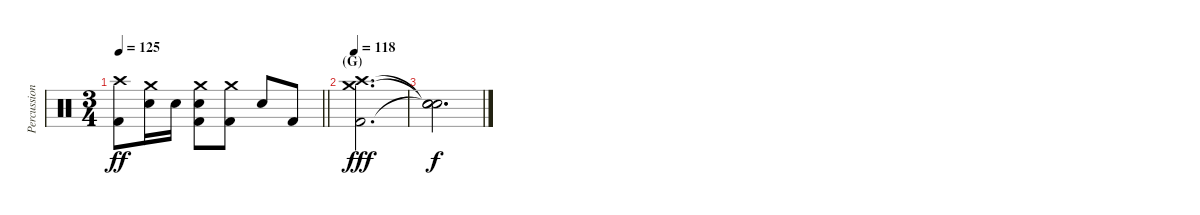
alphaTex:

\track ("Percussion" "Percussion") {instrument percussion}
\staff {score}
\articulation defaults
\ts (3 4)
\tempo 125
\clef neutral
\barLineRight lightlight
\ks c
("Crash high (hit)" "Kick (hit) 2").8{dy ff} ("Crash medium (hit)" "Snare (hit) 2").16 "Snare (hit) 2".16 ("Crash medium (hit)" "Snare (hit) 2" "Kick (hit) 2").8 ("Crash medium (hit)" "Kick (hit) 2").8 "Snare (hit) 2".8 "Kick (hit) 2".8 |
\section ("" "(G)")
\tempo 118
("Crash medium (hit)" "Crash high (hit)" "Kick (hit) 2").2{d dy fff} |
("Snare (hit)"{t} "Snare (hit)"{t} "Snare (hit)"{t}).2{d dy f}
